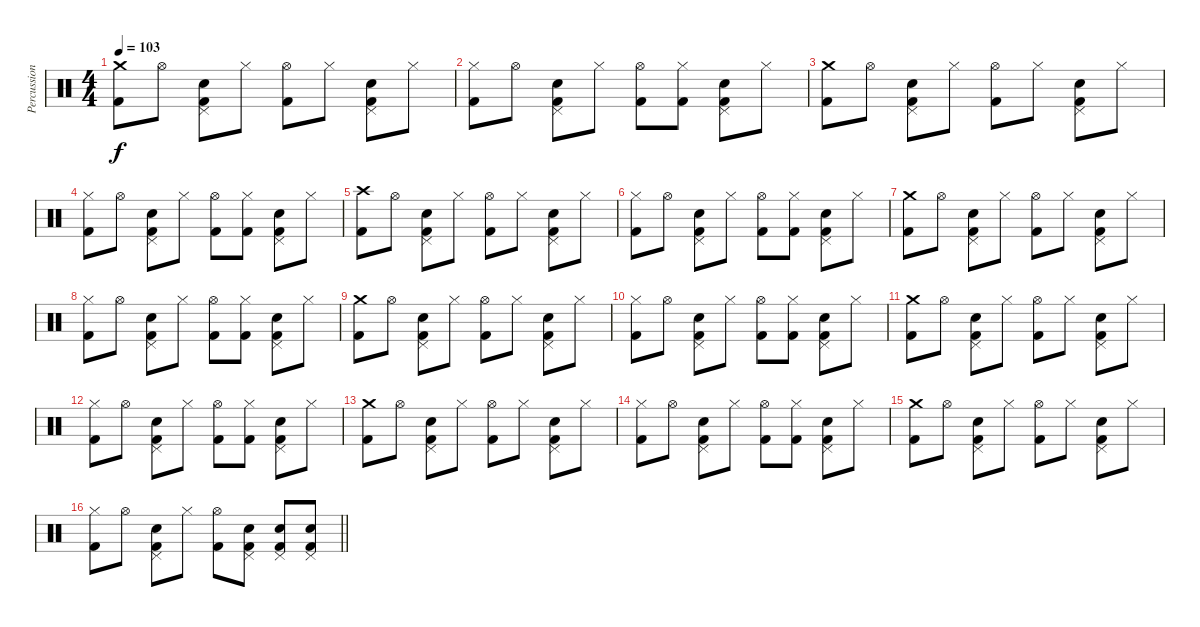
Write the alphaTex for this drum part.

\track ("Percussion: Denny Carmassi" "Percussion") {instrument percussion}
\staff {score}
\articulation defaults
\ts (4 4)
\tempo 103
\clef neutral
\ks c
("Crash medium (hit)" "Kick (hit) 2").8{dy f} "Hi-Hat (open)".8 ("Pedal Hi-Hat (hit)" "Snare (hit) 2" "Kick (hit) 2").8 "Hi-Hat (closed)".8 ("Hi-Hat (open)" "Kick (hit) 2").8 "Hi-Hat (closed)".8 ("Pedal Hi-Hat (hit)" "Snare (hit) 2" "Kick (hit) 2").8 "Hi-Hat (closed)".8 |
("Hi-Hat (closed)" "Kick (hit) 2").8 "Hi-Hat (open)".8 ("Pedal Hi-Hat (hit)" "Snare (hit) 2" "Kick (hit) 2").8 "Hi-Hat (closed)".8 ("Hi-Hat (open)" "Kick (hit) 2").8 ("Hi-Hat (closed)" "Kick (hit) 2").8 ("Pedal Hi-Hat (hit)" "Snare (hit) 2" "Kick (hit) 2").8 "Hi-Hat (closed)".8 |
("Crash medium (hit)" "Kick (hit) 2").8 "Hi-Hat (open)".8 ("Pedal Hi-Hat (hit)" "Snare (hit) 2" "Kick (hit) 2").8 "Hi-Hat (closed)".8 ("Hi-Hat (open)" "Kick (hit) 2").8 "Hi-Hat (closed)".8 ("Pedal Hi-Hat (hit)" "Snare (hit) 2" "Kick (hit) 2").8 "Hi-Hat (closed)".8 |
("Hi-Hat (closed)" "Kick (hit) 2").8 "Hi-Hat (open)".8 ("Pedal Hi-Hat (hit)" "Snare (hit) 2" "Kick (hit) 2").8 "Hi-Hat (closed)".8 ("Hi-Hat (open)" "Kick (hit) 2").8 ("Hi-Hat (closed)" "Kick (hit) 2").8 ("Pedal Hi-Hat (hit)" "Snare (hit) 2" "Kick (hit) 2").8 "Hi-Hat (closed)".8 |
("Crash high (hit)" "Kick (hit) 2").8 "Hi-Hat (open)".8 ("Pedal Hi-Hat (hit)" "Snare (hit) 2" "Kick (hit) 2").8 "Hi-Hat (closed)".8 ("Hi-Hat (open)" "Kick (hit) 2").8 "Hi-Hat (closed)".8 ("Pedal Hi-Hat (hit)" "Snare (hit) 2" "Kick (hit) 2").8 "Hi-Hat (closed)".8 |
("Hi-Hat (closed)" "Kick (hit) 2").8 "Hi-Hat (open)".8 ("Pedal Hi-Hat (hit)" "Snare (hit) 2" "Kick (hit) 2").8 "Hi-Hat (closed)".8 ("Hi-Hat (open)" "Kick (hit) 2").8 ("Hi-Hat (closed)" "Kick (hit) 2").8 ("Pedal Hi-Hat (hit)" "Snare (hit) 2" "Kick (hit) 2").8 "Hi-Hat (closed)".8 |
("Crash medium (hit)" "Kick (hit) 2").8 "Hi-Hat (open)".8 ("Pedal Hi-Hat (hit)" "Snare (hit) 2" "Kick (hit) 2").8 "Hi-Hat (closed)".8 ("Hi-Hat (open)" "Kick (hit) 2").8 "Hi-Hat (closed)".8 ("Pedal Hi-Hat (hit)" "Snare (hit) 2" "Kick (hit) 2").8 "Hi-Hat (closed)".8 |
("Hi-Hat (closed)" "Kick (hit) 2").8 "Hi-Hat (open)".8 ("Pedal Hi-Hat (hit)" "Snare (hit) 2" "Kick (hit) 2").8 "Hi-Hat (closed)".8 ("Hi-Hat (open)" "Kick (hit) 2").8 ("Hi-Hat (closed)" "Kick (hit) 2").8 ("Pedal Hi-Hat (hit)" "Snare (hit) 2" "Kick (hit) 2").8 "Hi-Hat (closed)".8 |
("Crash medium (hit)" "Kick (hit) 2").8 "Hi-Hat (open)".8 ("Pedal Hi-Hat (hit)" "Snare (hit) 2" "Kick (hit) 2").8 "Hi-Hat (closed)".8 ("Hi-Hat (open)" "Kick (hit) 2").8 "Hi-Hat (closed)".8 ("Pedal Hi-Hat (hit)" "Snare (hit) 2" "Kick (hit) 2").8 "Hi-Hat (closed)".8 |
("Hi-Hat (closed)" "Kick (hit) 2").8 "Hi-Hat (open)".8 ("Pedal Hi-Hat (hit)" "Snare (hit) 2" "Kick (hit) 2").8 "Hi-Hat (closed)".8 ("Hi-Hat (open)" "Kick (hit) 2").8 ("Hi-Hat (closed)" "Kick (hit) 2").8 ("Pedal Hi-Hat (hit)" "Snare (hit) 2" "Kick (hit) 2").8 "Hi-Hat (closed)".8 |
("Crash medium (hit)" "Kick (hit) 2").8 "Hi-Hat (open)".8 ("Pedal Hi-Hat (hit)" "Snare (hit) 2" "Kick (hit) 2").8 "Hi-Hat (closed)".8 ("Hi-Hat (open)" "Kick (hit) 2").8 "Hi-Hat (closed)".8 ("Pedal Hi-Hat (hit)" "Snare (hit) 2" "Kick (hit) 2").8 "Hi-Hat (closed)".8 |
("Hi-Hat (closed)" "Kick (hit) 2").8 "Hi-Hat (open)".8 ("Pedal Hi-Hat (hit)" "Snare (hit) 2" "Kick (hit) 2").8 "Hi-Hat (closed)".8 ("Hi-Hat (open)" "Kick (hit) 2").8 ("Hi-Hat (closed)" "Kick (hit) 2").8 ("Pedal Hi-Hat (hit)" "Snare (hit) 2" "Kick (hit) 2").8 "Hi-Hat (closed)".8 |
("Crash medium (hit)" "Kick (hit) 2").8 "Hi-Hat (open)".8 ("Pedal Hi-Hat (hit)" "Snare (hit) 2" "Kick (hit) 2").8 "Hi-Hat (closed)".8 ("Hi-Hat (open)" "Kick (hit) 2").8 "Hi-Hat (closed)".8 ("Pedal Hi-Hat (hit)" "Snare (hit) 2" "Kick (hit) 2").8 "Hi-Hat (closed)".8 |
("Hi-Hat (closed)" "Kick (hit) 2").8 "Hi-Hat (open)".8 ("Pedal Hi-Hat (hit)" "Snare (hit) 2" "Kick (hit) 2").8 "Hi-Hat (closed)".8 ("Hi-Hat (open)" "Kick (hit) 2").8 ("Hi-Hat (closed)" "Kick (hit) 2").8 ("Pedal Hi-Hat (hit)" "Snare (hit) 2" "Kick (hit) 2").8 "Hi-Hat (closed)".8 |
("Crash medium (hit)" "Kick (hit) 2").8 "Hi-Hat (open)".8 ("Pedal Hi-Hat (hit)" "Snare (hit) 2" "Kick (hit) 2").8 "Hi-Hat (closed)".8 ("Hi-Hat (open)" "Kick (hit) 2").8 "Hi-Hat (closed)".8 ("Pedal Hi-Hat (hit)" "Snare (hit) 2" "Kick (hit) 2").8 "Hi-Hat (closed)".8 |
\barLineRight lightlight
("Hi-Hat (closed)" "Kick (hit) 2").8 "Hi-Hat (open)".8 ("Pedal Hi-Hat (hit)" "Snare (hit) 2" "Kick (hit) 2").8 "Hi-Hat (closed)".8 ("Hi-Hat (open)" "Kick (hit) 2").8 ("Pedal Hi-Hat (hit)" "Snare (hit) 2" "Kick (hit) 2").8 ("Pedal Hi-Hat (hit)" "Snare (hit) 2" "Kick (hit) 2").8 ("Pedal Hi-Hat (hit)" "Snare (hit) 2" "Kick (hit) 2").8
